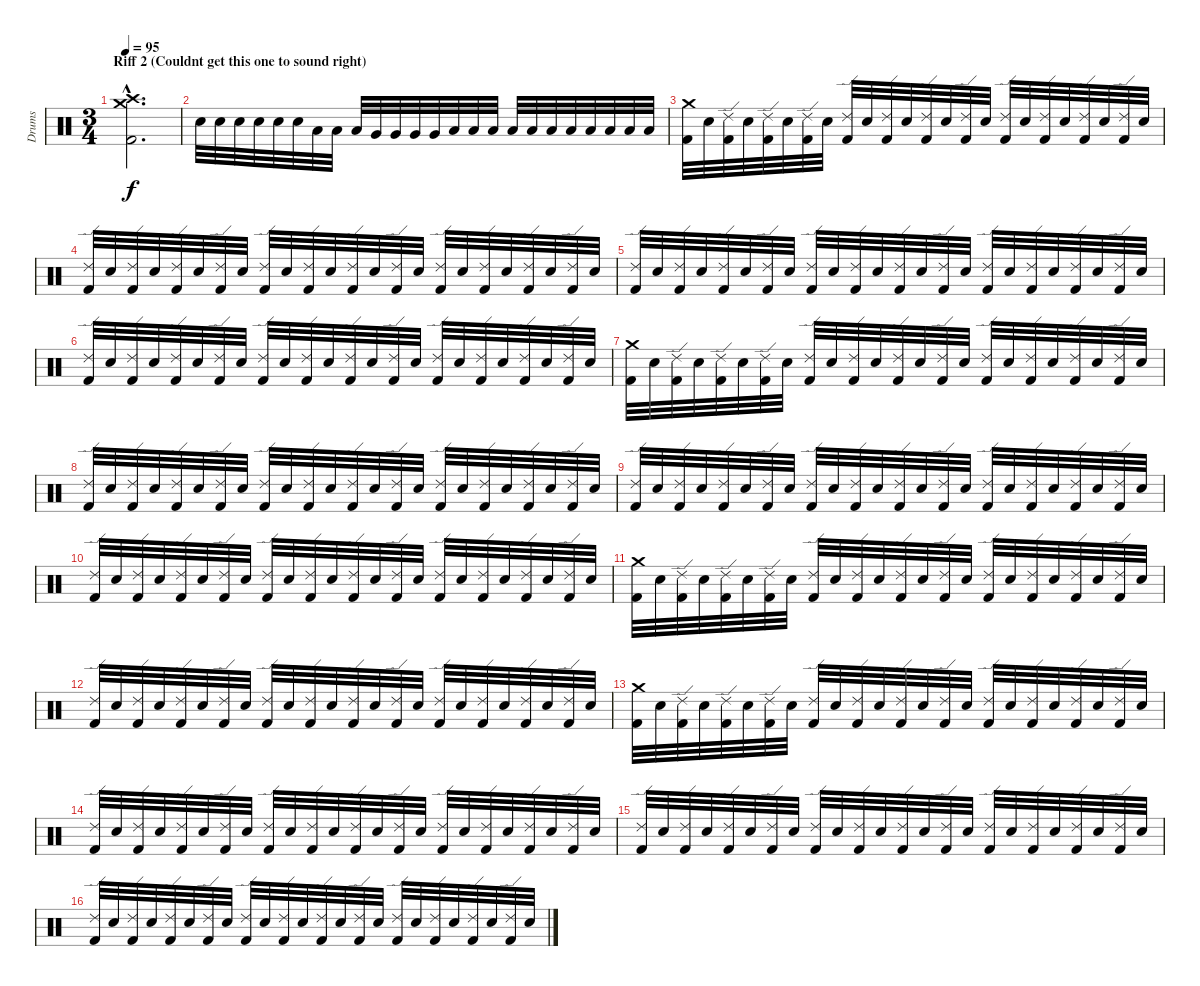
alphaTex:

\track ("Drums" "Drums") {instrument percussion}
\staff {score}
\articulation defaults
\ts (3 4)
\section ("" "Riff 2 (Couldnt get this one to sound right)")
\tempo 95
\clef neutral
\ks c
("Crash high (hit)"{hac} "Crash medium (hit)"{hac} "Kick (hit) 2"{hac}).2{d dy f} |
"Electric Snare (hit)".32 "Electric Snare (hit)".32 "Electric Snare (hit)".32 "Electric Snare (hit)".32 "Electric Snare (hit)".32 "Electric Snare (hit)".32 "Low Tom (hit)".32 "Low Tom (hit)".32 "Low Tom (hit)".32 "Very Low Tom (hit)".32 "Very Low Tom (hit)".32 "Very Low Tom (hit)".32 "Very Low Tom (hit)".32 "Low Floor Tom (hit)".32 "Low Floor Tom (hit)".32 "Low Floor Tom (hit)".32 "Low Floor Tom (hit)".32 "Low Floor Tom (hit)".32 "Low Floor Tom (hit)".32 "Low Floor Tom (hit)".32 "Low Floor Tom (hit)".32 "Low Floor Tom (hit)".32 "Low Floor Tom (hit)".32 "Low Floor Tom (hit)".32 |
("Crash medium (hit)" "Kick (hit) 2").32 "Electric Snare (hit)".32 ("Ride (edge) 2" "Kick (hit) 2").32 "Electric Snare (hit)".32 ("Ride (edge) 2" "Kick (hit) 2").32 "Electric Snare (hit)".32 ("Ride (edge) 2" "Kick (hit) 2").32 "Electric Snare (hit)".32 ("Ride (edge) 2" "Kick (hit) 2").32 "Electric Snare (hit)".32 ("Ride (edge) 2" "Kick (hit) 2").32 "Electric Snare (hit)".32 ("Ride (edge) 2" "Kick (hit) 2").32 "Electric Snare (hit)".32 ("Ride (edge) 2" "Kick (hit) 2").32 "Electric Snare (hit)".32 ("Ride (edge) 2" "Kick (hit) 2").32 "Electric Snare (hit)".32 ("Ride (edge) 2" "Kick (hit) 2").32 "Electric Snare (hit)".32 ("Ride (edge) 2" "Kick (hit) 2").32 "Electric Snare (hit)".32 ("Ride (edge) 2" "Kick (hit) 2").32 "Electric Snare (hit)".32 |
("Ride (edge) 2" "Kick (hit) 2").32 "Electric Snare (hit)".32 ("Ride (edge) 2" "Kick (hit) 2").32 "Electric Snare (hit)".32 ("Ride (edge) 2" "Kick (hit) 2").32 "Electric Snare (hit)".32 ("Ride (edge) 2" "Kick (hit) 2").32 "Electric Snare (hit)".32 ("Ride (edge) 2" "Kick (hit) 2").32 "Electric Snare (hit)".32 ("Ride (edge) 2" "Kick (hit) 2").32 "Electric Snare (hit)".32 ("Ride (edge) 2" "Kick (hit) 2").32 "Electric Snare (hit)".32 ("Ride (edge) 2" "Kick (hit) 2").32 "Electric Snare (hit)".32 ("Ride (edge) 2" "Kick (hit) 2").32 "Electric Snare (hit)".32 ("Ride (edge) 2" "Kick (hit) 2").32 "Electric Snare (hit)".32 ("Ride (edge) 2" "Kick (hit) 2").32 "Electric Snare (hit)".32 ("Ride (edge) 2" "Kick (hit) 2").32 "Electric Snare (hit)".32 |
("Ride (edge) 2" "Kick (hit) 2").32 "Electric Snare (hit)".32 ("Ride (edge) 2" "Kick (hit) 2").32 "Electric Snare (hit)".32 ("Ride (edge) 2" "Kick (hit) 2").32 "Electric Snare (hit)".32 ("Ride (edge) 2" "Kick (hit) 2").32 "Electric Snare (hit)".32 ("Ride (edge) 2" "Kick (hit) 2").32 "Electric Snare (hit)".32 ("Ride (edge) 2" "Kick (hit) 2").32 "Electric Snare (hit)".32 ("Ride (edge) 2" "Kick (hit) 2").32 "Electric Snare (hit)".32 ("Ride (edge) 2" "Kick (hit) 2").32 "Electric Snare (hit)".32 ("Ride (edge) 2" "Kick (hit) 2").32 "Electric Snare (hit)".32 ("Ride (edge) 2" "Kick (hit) 2").32 "Electric Snare (hit)".32 ("Ride (edge) 2" "Kick (hit) 2").32 "Electric Snare (hit)".32 ("Ride (edge) 2" "Kick (hit) 2").32 "Electric Snare (hit)".32 |
("Ride (edge) 2" "Kick (hit) 2").32 "Electric Snare (hit)".32 ("Ride (edge) 2" "Kick (hit) 2").32 "Electric Snare (hit)".32 ("Ride (edge) 2" "Kick (hit) 2").32 "Electric Snare (hit)".32 ("Ride (edge) 2" "Kick (hit) 2").32 "Electric Snare (hit)".32 ("Ride (edge) 2" "Kick (hit) 2").32 "Electric Snare (hit)".32 ("Ride (edge) 2" "Kick (hit) 2").32 "Electric Snare (hit)".32 ("Ride (edge) 2" "Kick (hit) 2").32 "Electric Snare (hit)".32 ("Ride (edge) 2" "Kick (hit) 2").32 "Electric Snare (hit)".32 ("Ride (edge) 2" "Kick (hit) 2").32 "Electric Snare (hit)".32 ("Ride (edge) 2" "Kick (hit) 2").32 "Electric Snare (hit)".32 ("Ride (edge) 2" "Kick (hit) 2").32 "Electric Snare (hit)".32 ("Ride (edge) 2" "Kick (hit) 2").32 "Electric Snare (hit)".32 |
("Crash medium (hit)" "Kick (hit) 2").32 "Electric Snare (hit)".32 ("Ride (edge) 2" "Kick (hit) 2").32 "Electric Snare (hit)".32 ("Ride (edge) 2" "Kick (hit) 2").32 "Electric Snare (hit)".32 ("Ride (edge) 2" "Kick (hit) 2").32 "Electric Snare (hit)".32 ("Ride (edge) 2" "Kick (hit) 2").32 "Electric Snare (hit)".32 ("Ride (edge) 2" "Kick (hit) 2").32 "Electric Snare (hit)".32 ("Ride (edge) 2" "Kick (hit) 2").32 "Electric Snare (hit)".32 ("Ride (edge) 2" "Kick (hit) 2").32 "Electric Snare (hit)".32 ("Ride (edge) 2" "Kick (hit) 2").32 "Electric Snare (hit)".32 ("Ride (edge) 2" "Kick (hit) 2").32 "Electric Snare (hit)".32 ("Ride (edge) 2" "Kick (hit) 2").32 "Electric Snare (hit)".32 ("Ride (edge) 2" "Kick (hit) 2").32 "Electric Snare (hit)".32 |
("Ride (edge) 2" "Kick (hit) 2").32 "Electric Snare (hit)".32 ("Ride (edge) 2" "Kick (hit) 2").32 "Electric Snare (hit)".32 ("Ride (edge) 2" "Kick (hit) 2").32 "Electric Snare (hit)".32 ("Ride (edge) 2" "Kick (hit) 2").32 "Electric Snare (hit)".32 ("Ride (edge) 2" "Kick (hit) 2").32 "Electric Snare (hit)".32 ("Ride (edge) 2" "Kick (hit) 2").32 "Electric Snare (hit)".32 ("Ride (edge) 2" "Kick (hit) 2").32 "Electric Snare (hit)".32 ("Ride (edge) 2" "Kick (hit) 2").32 "Electric Snare (hit)".32 ("Ride (edge) 2" "Kick (hit) 2").32 "Electric Snare (hit)".32 ("Ride (edge) 2" "Kick (hit) 2").32 "Electric Snare (hit)".32 ("Ride (edge) 2" "Kick (hit) 2").32 "Electric Snare (hit)".32 ("Ride (edge) 2" "Kick (hit) 2").32 "Electric Snare (hit)".32 |
("Ride (edge) 2" "Kick (hit) 2").32 "Electric Snare (hit)".32 ("Ride (edge) 2" "Kick (hit) 2").32 "Electric Snare (hit)".32 ("Ride (edge) 2" "Kick (hit) 2").32 "Electric Snare (hit)".32 ("Ride (edge) 2" "Kick (hit) 2").32 "Electric Snare (hit)".32 ("Ride (edge) 2" "Kick (hit) 2").32 "Electric Snare (hit)".32 ("Ride (edge) 2" "Kick (hit) 2").32 "Electric Snare (hit)".32 ("Ride (edge) 2" "Kick (hit) 2").32 "Electric Snare (hit)".32 ("Ride (edge) 2" "Kick (hit) 2").32 "Electric Snare (hit)".32 ("Ride (edge) 2" "Kick (hit) 2").32 "Electric Snare (hit)".32 ("Ride (edge) 2" "Kick (hit) 2").32 "Electric Snare (hit)".32 ("Ride (edge) 2" "Kick (hit) 2").32 "Electric Snare (hit)".32 ("Ride (edge) 2" "Kick (hit) 2").32 "Electric Snare (hit)".32 |
("Ride (edge) 2" "Kick (hit) 2").32 "Electric Snare (hit)".32 ("Ride (edge) 2" "Kick (hit) 2").32 "Electric Snare (hit)".32 ("Ride (edge) 2" "Kick (hit) 2").32 "Electric Snare (hit)".32 ("Ride (edge) 2" "Kick (hit) 2").32 "Electric Snare (hit)".32 ("Ride (edge) 2" "Kick (hit) 2").32 "Electric Snare (hit)".32 ("Ride (edge) 2" "Kick (hit) 2").32 "Electric Snare (hit)".32 ("Ride (edge) 2" "Kick (hit) 2").32 "Electric Snare (hit)".32 ("Ride (edge) 2" "Kick (hit) 2").32 "Electric Snare (hit)".32 ("Ride (edge) 2" "Kick (hit) 2").32 "Electric Snare (hit)".32 ("Ride (edge) 2" "Kick (hit) 2").32 "Electric Snare (hit)".32 ("Ride (edge) 2" "Kick (hit) 2").32 "Electric Snare (hit)".32 ("Ride (edge) 2" "Kick (hit) 2").32 "Electric Snare (hit)".32 |
("Crash medium (hit)" "Kick (hit) 2").32 "Electric Snare (hit)".32 ("Ride (edge) 2" "Kick (hit) 2").32 "Electric Snare (hit)".32 ("Ride (edge) 2" "Kick (hit) 2").32 "Electric Snare (hit)".32 ("Ride (edge) 2" "Kick (hit) 2").32 "Electric Snare (hit)".32 ("Ride (edge) 2" "Kick (hit) 2").32 "Electric Snare (hit)".32 ("Ride (edge) 2" "Kick (hit) 2").32 "Electric Snare (hit)".32 ("Ride (edge) 2" "Kick (hit) 2").32 "Electric Snare (hit)".32 ("Ride (edge) 2" "Kick (hit) 2").32 "Electric Snare (hit)".32 ("Ride (edge) 2" "Kick (hit) 2").32 "Electric Snare (hit)".32 ("Ride (edge) 2" "Kick (hit) 2").32 "Electric Snare (hit)".32 ("Ride (edge) 2" "Kick (hit) 2").32 "Electric Snare (hit)".32 ("Ride (edge) 2" "Kick (hit) 2").32 "Electric Snare (hit)".32 |
("Ride (edge) 2" "Kick (hit) 2").32 "Electric Snare (hit)".32 ("Ride (edge) 2" "Kick (hit) 2").32 "Electric Snare (hit)".32 ("Ride (edge) 2" "Kick (hit) 2").32 "Electric Snare (hit)".32 ("Ride (edge) 2" "Kick (hit) 2").32 "Electric Snare (hit)".32 ("Ride (edge) 2" "Kick (hit) 2").32 "Electric Snare (hit)".32 ("Ride (edge) 2" "Kick (hit) 2").32 "Electric Snare (hit)".32 ("Ride (edge) 2" "Kick (hit) 2").32 "Electric Snare (hit)".32 ("Ride (edge) 2" "Kick (hit) 2").32 "Electric Snare (hit)".32 ("Ride (edge) 2" "Kick (hit) 2").32 "Electric Snare (hit)".32 ("Ride (edge) 2" "Kick (hit) 2").32 "Electric Snare (hit)".32 ("Ride (edge) 2" "Kick (hit) 2").32 "Electric Snare (hit)".32 ("Ride (edge) 2" "Kick (hit) 2").32 "Electric Snare (hit)".32 |
("Crash medium (hit)" "Kick (hit) 2").32 "Electric Snare (hit)".32 ("Ride (edge) 2" "Kick (hit) 2").32 "Electric Snare (hit)".32 ("Ride (edge) 2" "Kick (hit) 2").32 "Electric Snare (hit)".32 ("Ride (edge) 2" "Kick (hit) 2").32 "Electric Snare (hit)".32 ("Ride (edge) 2" "Kick (hit) 2").32 "Electric Snare (hit)".32 ("Ride (edge) 2" "Kick (hit) 2").32 "Electric Snare (hit)".32 ("Ride (edge) 2" "Kick (hit) 2").32 "Electric Snare (hit)".32 ("Ride (edge) 2" "Kick (hit) 2").32 "Electric Snare (hit)".32 ("Ride (edge) 2" "Kick (hit) 2").32 "Electric Snare (hit)".32 ("Ride (edge) 2" "Kick (hit) 2").32 "Electric Snare (hit)".32 ("Ride (edge) 2" "Kick (hit) 2").32 "Electric Snare (hit)".32 ("Ride (edge) 2" "Kick (hit) 2").32 "Electric Snare (hit)".32 |
("Ride (edge) 2" "Kick (hit) 2").32 "Electric Snare (hit)".32 ("Ride (edge) 2" "Kick (hit) 2").32 "Electric Snare (hit)".32 ("Ride (edge) 2" "Kick (hit) 2").32 "Electric Snare (hit)".32 ("Ride (edge) 2" "Kick (hit) 2").32 "Electric Snare (hit)".32 ("Ride (edge) 2" "Kick (hit) 2").32 "Electric Snare (hit)".32 ("Ride (edge) 2" "Kick (hit) 2").32 "Electric Snare (hit)".32 ("Ride (edge) 2" "Kick (hit) 2").32 "Electric Snare (hit)".32 ("Ride (edge) 2" "Kick (hit) 2").32 "Electric Snare (hit)".32 ("Ride (edge) 2" "Kick (hit) 2").32 "Electric Snare (hit)".32 ("Ride (edge) 2" "Kick (hit) 2").32 "Electric Snare (hit)".32 ("Ride (edge) 2" "Kick (hit) 2").32 "Electric Snare (hit)".32 ("Ride (edge) 2" "Kick (hit) 2").32 "Electric Snare (hit)".32 |
("Ride (edge) 2" "Kick (hit) 2").32 "Electric Snare (hit)".32 ("Ride (edge) 2" "Kick (hit) 2").32 "Electric Snare (hit)".32 ("Ride (edge) 2" "Kick (hit) 2").32 "Electric Snare (hit)".32 ("Ride (edge) 2" "Kick (hit) 2").32 "Electric Snare (hit)".32 ("Ride (edge) 2" "Kick (hit) 2").32 "Electric Snare (hit)".32 ("Ride (edge) 2" "Kick (hit) 2").32 "Electric Snare (hit)".32 ("Ride (edge) 2" "Kick (hit) 2").32 "Electric Snare (hit)".32 ("Ride (edge) 2" "Kick (hit) 2").32 "Electric Snare (hit)".32 ("Ride (edge) 2" "Kick (hit) 2").32 "Electric Snare (hit)".32 ("Ride (edge) 2" "Kick (hit) 2").32 "Electric Snare (hit)".32 ("Ride (edge) 2" "Kick (hit) 2").32 "Electric Snare (hit)".32 ("Ride (edge) 2" "Kick (hit) 2").32 "Electric Snare (hit)".32 |
("Ride (edge) 2" "Kick (hit) 2").32 "Electric Snare (hit)".32 ("Ride (edge) 2" "Kick (hit) 2").32 "Electric Snare (hit)".32 ("Ride (edge) 2" "Kick (hit) 2").32 "Electric Snare (hit)".32 ("Ride (edge) 2" "Kick (hit) 2").32 "Electric Snare (hit)".32 ("Ride (edge) 2" "Kick (hit) 2").32 "Electric Snare (hit)".32 ("Ride (edge) 2" "Kick (hit) 2").32 "Electric Snare (hit)".32 ("Ride (edge) 2" "Kick (hit) 2").32 "Electric Snare (hit)".32 ("Ride (edge) 2" "Kick (hit) 2").32 "Electric Snare (hit)".32 ("Ride (edge) 2" "Kick (hit) 2").32 "Electric Snare (hit)".32 ("Ride (edge) 2" "Kick (hit) 2").32 "Electric Snare (hit)".32 ("Ride (edge) 2" "Kick (hit) 2").32 "Electric Snare (hit)".32 ("Ride (edge) 2" "Kick (hit) 2").32 "Electric Snare (hit)".32
